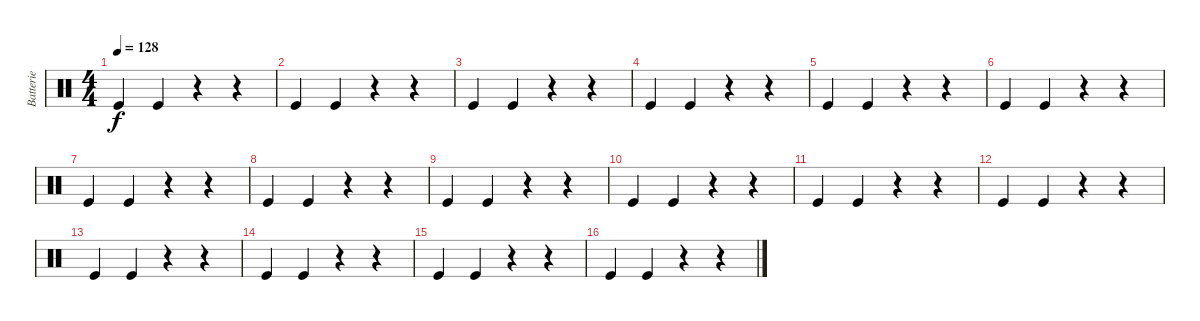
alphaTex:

\track ("Batterie" "Batterie") {instrument percussion}
\staff {score}
\articulation defaults
\ts (4 4)
\tempo 128
\clef neutral
\ks c "Kick (hit)".4{dy f} "Kick (hit)".4
r.4 r.4 |
"Kick (hit)".4 "Kick (hit)".4 r.4 r.4 |
"Kick (hit)".4 "Kick (hit)".4 r.4 r.4 |
"Kick (hit)".4 "Kick (hit)".4 r.4 r.4 |
"Kick (hit)".4 "Kick (hit)".4 r.4 r.4 |
"Kick (hit)".4 "Kick (hit)".4 r.4 r.4 |
"Kick (hit)".4 "Kick (hit)".4 r.4 r.4 |
"Kick (hit)".4 "Kick (hit)".4 r.4 r.4 |
"Kick (hit)".4 "Kick (hit)".4 r.4 r.4 |
"Kick (hit)".4 "Kick (hit)".4 r.4 r.4 |
"Kick (hit)".4 "Kick (hit)".4 r.4 r.4 |
"Kick (hit)".4 "Kick (hit)".4 r.4 r.4 |
"Kick (hit)".4 "Kick (hit)".4 r.4 r.4 |
"Kick (hit)".4 "Kick (hit)".4 r.4 r.4 |
"Kick (hit)".4 "Kick (hit)".4 r.4 r.4 |
"Kick (hit)".4 "Kick (hit)".4 r.4 r.4
